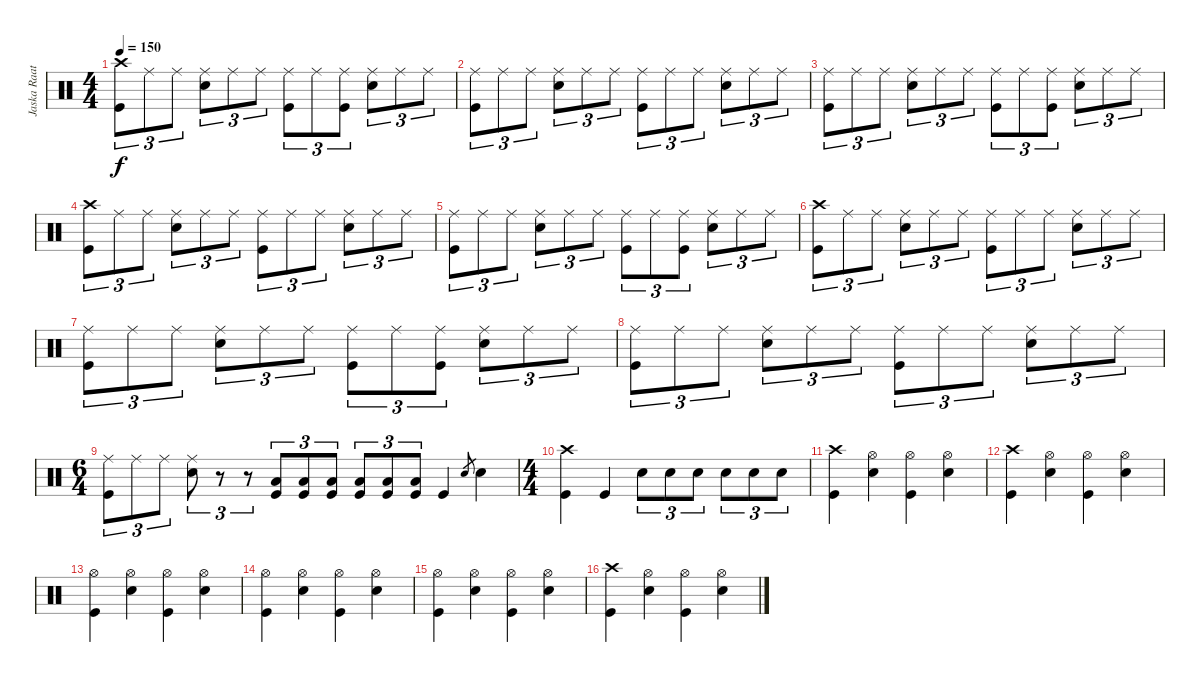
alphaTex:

\track ("Jaska Raatikainen" "Jaska Raat") {instrument percussion}
\staff {score}
\articulation defaults
\ts (4 4)
\tempo 150
\clef neutral
\ks c
("Crash high (hit)" "Kick (hit)").8{tu (3 2) dy f} "Ride (middle)".8{tu (3 2)} "Ride (middle)".8{tu (3 2)} ("Ride (middle)" "Electric Snare (hit)").8{tu (3 2)} "Ride (middle)".8{tu (3 2)} "Ride (middle)".8{tu (3 2)} ("Ride (middle)" "Kick (hit)").8{tu (3 2)} "Ride (middle)".8{tu (3 2)} ("Ride (middle)" "Kick (hit)").8{tu (3 2)} ("Ride (middle)" "Electric Snare (hit)").8{tu (3 2)} "Ride (middle)".8{tu (3 2)} "Ride (middle)".8{tu (3 2)} |
("Ride (middle)" "Kick (hit)").8{tu (3 2)} "Ride (middle)".8{tu (3 2)} "Ride (middle)".8{tu (3 2)} ("Ride (middle)" "Electric Snare (hit)").8{tu (3 2)} "Ride (middle)".8{tu (3 2)} "Ride (middle)".8{tu (3 2)} ("Ride (middle)" "Kick (hit)").8{tu (3 2)} "Ride (middle)".8{tu (3 2)} "Ride (middle)".8{tu (3 2)} ("Ride (middle)" "Electric Snare (hit)").8{tu (3 2)} "Ride (middle)".8{tu (3 2)} "Ride (middle)".8{tu (3 2)} |
("Ride (middle)" "Kick (hit)").8{tu (3 2)} "Ride (middle)".8{tu (3 2)} "Ride (middle)".8{tu (3 2)} ("Ride (middle)" "Electric Snare (hit)").8{tu (3 2)} "Ride (middle)".8{tu (3 2)} "Ride (middle)".8{tu (3 2)} ("Ride (middle)" "Kick (hit)").8{tu (3 2)} "Ride (middle)".8{tu (3 2)} ("Ride (middle)" "Kick (hit)").8{tu (3 2)} ("Ride (middle)" "Electric Snare (hit)").8{tu (3 2)} "Ride (middle)".8{tu (3 2)} "Ride (middle)".8{tu (3 2)} |
("Crash high (hit)" "Kick (hit)").8{tu (3 2)} "Ride (middle)".8{tu (3 2)} "Ride (middle)".8{tu (3 2)} ("Ride (middle)" "Electric Snare (hit)").8{tu (3 2)} "Ride (middle)".8{tu (3 2)} "Ride (middle)".8{tu (3 2)} ("Ride (middle)" "Kick (hit)").8{tu (3 2)} "Ride (middle)".8{tu (3 2)} "Ride (middle)".8{tu (3 2)} ("Ride (middle)" "Electric Snare (hit)").8{tu (3 2)} "Ride (middle)".8{tu (3 2)} "Ride (middle)".8{tu (3 2)} |
("Ride (middle)" "Kick (hit)").8{tu (3 2)} "Ride (middle)".8{tu (3 2)} "Ride (middle)".8{tu (3 2)} ("Ride (middle)" "Electric Snare (hit)").8{tu (3 2)} "Ride (middle)".8{tu (3 2)} "Ride (middle)".8{tu (3 2)} ("Ride (middle)" "Kick (hit)").8{tu (3 2)} "Ride (middle)".8{tu (3 2)} ("Ride (middle)" "Kick (hit)").8{tu (3 2)} ("Ride (middle)" "Electric Snare (hit)").8{tu (3 2)} "Ride (middle)".8{tu (3 2)} "Ride (middle)".8{tu (3 2)} |
("Crash high (hit)" "Kick (hit)").8{tu (3 2)} "Ride (middle)".8{tu (3 2)} "Ride (middle)".8{tu (3 2)} ("Ride (middle)" "Electric Snare (hit)").8{tu (3 2)} "Ride (middle)".8{tu (3 2)} "Ride (middle)".8{tu (3 2)} ("Ride (middle)" "Kick (hit)").8{tu (3 2)} "Ride (middle)".8{tu (3 2)} "Ride (middle)".8{tu (3 2)} ("Ride (middle)" "Electric Snare (hit)").8{tu (3 2)} "Ride (middle)".8{tu (3 2)} "Ride (middle)".8{tu (3 2)} |
("Ride (middle)" "Kick (hit)").8{tu (3 2)} "Ride (middle)".8{tu (3 2)} "Ride (middle)".8{tu (3 2)} ("Ride (middle)" "Electric Snare (hit)").8{tu (3 2)} "Ride (middle)".8{tu (3 2)} "Ride (middle)".8{tu (3 2)} ("Ride (middle)" "Kick (hit)").8{tu (3 2)} "Ride (middle)".8{tu (3 2)} ("Ride (middle)" "Kick (hit)").8{tu (3 2)} ("Ride (middle)" "Electric Snare (hit)").8{tu (3 2)} "Ride (middle)".8{tu (3 2)} "Ride (middle)".8{tu (3 2)} |
("Ride (middle)" "Kick (hit)").8{tu (3 2)} "Ride (middle)".8{tu (3 2)} "Ride (middle)".8{tu (3 2)} ("Ride (middle)" "Electric Snare (hit)").8{tu (3 2)} "Ride (middle)".8{tu (3 2)} "Ride (middle)".8{tu (3 2)} ("Ride (middle)" "Kick (hit)").8{tu (3 2)} "Ride (middle)".8{tu (3 2)} "Ride (middle)".8{tu (3 2)} ("Ride (middle)" "Electric Snare (hit)").8{tu (3 2)} "Ride (middle)".8{tu (3 2)} "Ride (middle)".8{tu (3 2)} |
\ts (6 4)
("Ride (middle)" "Kick (hit)").8{tu (3 2)} "Ride (middle)".8{tu (3 2)} "Ride (middle)".8{tu (3 2)} ("Ride (middle)" "Electric Snare (hit)").8{tu (3 2)} r.8{tu (3 2)} r.8{tu (3 2)} ("Low Tom (hit)" "Kick (hit)").8{tu (3 2)} ("Low Tom (hit)" "Kick (hit)").8{tu (3 2)} ("Low Tom (hit)" "Kick (hit)").8{tu (3 2)} ("Low Tom (hit)" "Kick (hit)").8{tu (3 2)} ("Low Tom (hit)" "Kick (hit)").8{tu (3 2)} ("Low Tom (hit)" "Kick (hit)").8{tu (3 2)} "Kick (hit)".4 "Electric Snare (hit)".8{gr} "Electric Snare (hit)".4 |
\ts (4 4)
("Crash high (hit)" "Kick (hit)").4 "Kick (hit)".4 "Electric Snare (hit)".8{tu (3 2)} "Electric Snare (hit)".8{tu (3 2)} "Electric Snare (hit)".8{tu (3 2)} "Electric Snare (hit)".8{tu (3 2)} "Electric Snare (hit)".8{tu (3 2)} "Electric Snare (hit)".8{tu (3 2)} |
("Crash high (hit)" "Kick (hit)").4 ("Hi-Hat (open)" "Electric Snare (hit)").4 ("Hi-Hat (open)" "Kick (hit)").4 ("Hi-Hat (open)" "Electric Snare (hit)").4 |
("Crash high (hit)" "Kick (hit)").4 ("Hi-Hat (open)" "Electric Snare (hit)").4 ("Hi-Hat (open)" "Kick (hit)").4 ("Hi-Hat (open)" "Electric Snare (hit)").4 |
("Hi-Hat (open)" "Kick (hit)").4 ("Hi-Hat (open)" "Electric Snare (hit)").4 ("Hi-Hat (open)" "Kick (hit)").4 ("Hi-Hat (open)" "Electric Snare (hit)").4 |
("Hi-Hat (open)" "Kick (hit)").4 ("Hi-Hat (open)" "Electric Snare (hit)").4 ("Hi-Hat (open)" "Kick (hit)").4 ("Hi-Hat (open)" "Electric Snare (hit)").4 |
("Hi-Hat (open)" "Kick (hit)").4 ("Hi-Hat (open)" "Electric Snare (hit)").4 ("Hi-Hat (open)" "Kick (hit)").4 ("Hi-Hat (open)" "Electric Snare (hit)").4 |
("Crash high (hit)" "Kick (hit)").4 ("Hi-Hat (open)" "Electric Snare (hit)").4 ("Hi-Hat (open)" "Kick (hit)").4 ("Hi-Hat (open)" "Electric Snare (hit)").4
